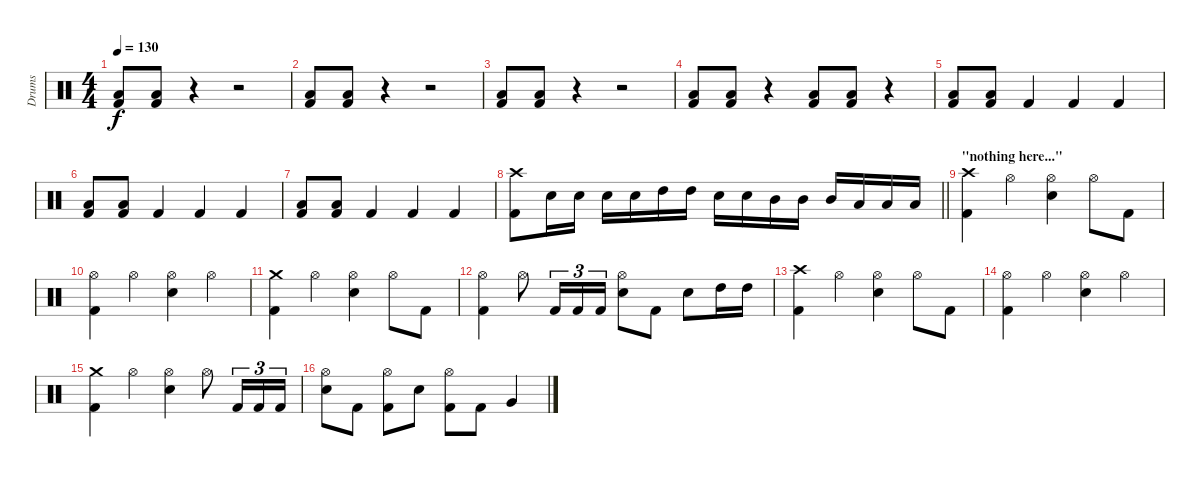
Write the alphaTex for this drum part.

\track ("Drums" "Drums") {instrument percussion}
\staff {score}
\articulation defaults
\ts (4 4)
\section ("" "")
\tempo 130
\clef neutral
\ks c
("Low Tom (hit)" "Kick (hit) 2").8{dy f} ("Low Tom (hit)" "Kick (hit) 2").8 r.4 r.2 |
("Low Tom (hit)" "Kick (hit) 2").8 ("Low Tom (hit)" "Kick (hit) 2").8 r.4 r.2 |
("Low Tom (hit)" "Kick (hit) 2").8 ("Low Tom (hit)" "Kick (hit) 2").8 r.4 r.2 |
("Low Tom (hit)" "Kick (hit) 2").8 ("Low Tom (hit)" "Kick (hit) 2").8 r.4 ("Low Tom (hit)" "Kick (hit) 2").8 ("Low Tom (hit)" "Kick (hit) 2").8 r.4 |
("Low Tom (hit)" "Kick (hit) 2").8 ("Low Tom (hit)" "Kick (hit) 2").8 "Kick (hit) 2".4 "Kick (hit) 2".4 "Kick (hit) 2".4 |
("Low Tom (hit)" "Kick (hit) 2").8 ("Low Tom (hit)" "Kick (hit) 2").8 "Kick (hit) 2".4 "Kick (hit) 2".4 "Kick (hit) 2".4 |
("Low Tom (hit)" "Kick (hit) 2").8 ("Low Tom (hit)" "Kick (hit) 2").8 "Kick (hit) 2".4 "Kick (hit) 2".4 "Kick (hit) 2".4 |
\barLineRight lightlight
("Crash high (hit)" "Kick (hit) 2").8 "Snare (hit) 2".16 "Snare (hit) 2".16 "Snare (hit) 2".16 "Snare (hit) 2".16 "High Tom (hit)".16 "High Tom (hit)".16 "Snare (hit) 2".16 "Snare (hit) 2".16 "Mid Tom (hit)".16 "Mid Tom (hit)".16 "Mid Tom (hit)".16 "Low Tom (hit)".16 "Low Tom (hit)".16 "Low Tom (hit)".16 |
\section ("" "\"nothing here...\"")
("Crash high (hit)" "Kick (hit) 2").4 "Hi-Hat (open)".4 ("Hi-Hat (open)" "Snare (hit) 2").4 "Hi-Hat (open)".8 "Kick (hit) 2".8 |
("Hi-Hat (open)" "Kick (hit) 2").4 "Hi-Hat (open)".4 ("Hi-Hat (open)" "Snare (hit) 2").4 "Hi-Hat (open)".4 |
("Crash medium (hit)" "Kick (hit) 2").4 "Hi-Hat (open)".4 ("Hi-Hat (open)" "Snare (hit) 2").4 "Hi-Hat (open)".8 "Kick (hit) 2".8 |
("Hi-Hat (open)" "Kick (hit) 2").4 "Hi-Hat (open)".8 "Kick (hit) 2".16{tu (3 2)} "Kick (hit) 2".16{tu (3 2)} "Kick (hit) 2".16{tu (3 2)} ("Hi-Hat (open)" "Snare (hit) 2").8 "Kick (hit) 2".8 "Snare (hit) 2".8 "High Tom (hit)".16 "High Tom (hit)".16 |
("Crash high (hit)" "Kick (hit) 2").4 "Hi-Hat (open)".4 ("Hi-Hat (open)" "Snare (hit) 2").4 "Hi-Hat (open)".8 "Kick (hit) 2".8 |
("Hi-Hat (open)" "Kick (hit) 2").4 "Hi-Hat (open)".4 ("Hi-Hat (open)" "Snare (hit) 2").4 "Hi-Hat (open)".4 |
("Crash medium (hit)" "Kick (hit) 2").4 "Hi-Hat (open)".4 ("Hi-Hat (open)" "Snare (hit) 2").4 "Hi-Hat (open)".8 "Kick (hit) 2".16{tu (3 2)} "Kick (hit) 2".16{tu (3 2)} "Kick (hit) 2".16{tu (3 2)} |
("Hi-Hat (open)" "Snare (hit) 2").8 "Kick (hit) 2".8 ("Hi-Hat (open)" "Kick (hit) 2").8 "Snare (hit) 2".8 ("Hi-Hat (open)" "Kick (hit) 2").8 "Kick (hit) 2".8 "Very Low Tom (hit)".4
